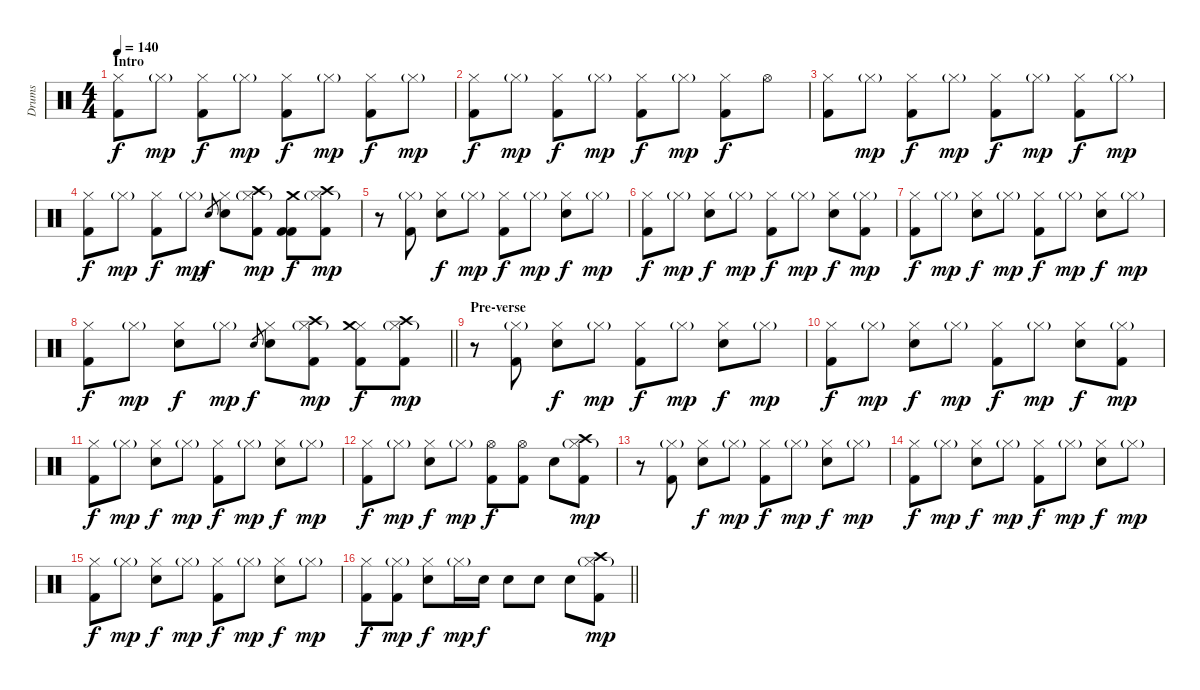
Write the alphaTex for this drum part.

\track ("Drums" "Drums") {instrument percussion}
\staff {score}
\articulation defaults
\ts (4 4)
\section ("" "Intro")
\tempo 140
\clef neutral
\ks c
("Kick (hit) 2" "Hi-Hat (closed)").8{dy f} "Hi-Hat (closed)"{g}.8{dy mp} ("Kick (hit) 2" "Hi-Hat (closed)").8{dy f} "Hi-Hat (closed)"{g}.8{dy mp} ("Kick (hit) 2" "Hi-Hat (closed)").8{dy f} "Hi-Hat (closed)"{g}.8{dy mp} ("Kick (hit) 2" "Hi-Hat (closed)").8{dy f} "Hi-Hat (closed)"{g}.8{dy mp} |
("Kick (hit) 2" "Hi-Hat (closed)").8{dy f} "Hi-Hat (closed)"{g}.8{dy mp} ("Kick (hit) 2" "Hi-Hat (closed)").8{dy f} "Hi-Hat (closed)"{g}.8{dy mp} ("Kick (hit) 2" "Hi-Hat (closed)").8{dy f} "Hi-Hat (closed)"{g}.8{dy mp} ("Kick (hit) 2" "Hi-Hat (closed)").8{dy f} "Hi-Hat (open)".8 |
("Kick (hit) 2" "Hi-Hat (closed)").8 "Hi-Hat (closed)"{g}.8{dy mp} ("Kick (hit) 2" "Hi-Hat (closed)").8{dy f} "Hi-Hat (closed)"{g}.8{dy mp} ("Kick (hit) 2" "Hi-Hat (closed)").8{dy f} "Hi-Hat (closed)"{g}.8{dy mp} ("Kick (hit) 2" "Hi-Hat (closed)").8{dy f} "Hi-Hat (closed)"{g}.8{dy mp} |
("Kick (hit) 2" "Hi-Hat (closed)").8{dy f} "Hi-Hat (closed)"{g}.8{dy mp} ("Kick (hit) 2" "Hi-Hat (closed)").8{dy f} "Hi-Hat (closed)"{g}.8{dy mp} "Electric Snare (hit)".8{gr dy f} ("Electric Snare (hit)" "Hi-Hat (closed)").8 ("Hi-Hat (closed)"{g} "Kick (hit) 2" "Crash high (hit)").8{dy mp} ("Kick (hit) 2" "Kick (hit) 2" "Crash medium (hit)").8{dy f} ("Hi-Hat (closed)"{g} "Kick (hit) 2" "Crash high (hit)").8{dy mp} |
r.8 ("Hi-Hat (closed)"{g} "Kick (hit) 2").8 ("Hi-Hat (closed)" "Electric Snare (hit)").8{dy f} "Hi-Hat (closed)"{g}.8{dy mp} ("Hi-Hat (closed)" "Kick (hit) 2").8{dy f} "Hi-Hat (closed)"{g}.8{dy mp} ("Hi-Hat (closed)" "Electric Snare (hit)").8{dy f} "Hi-Hat (closed)"{g}.8{dy mp} |
("Hi-Hat (closed)" "Kick (hit) 2").8{dy f} "Hi-Hat (closed)"{g}.8{dy mp} ("Hi-Hat (closed)" "Electric Snare (hit)").8{dy f} "Hi-Hat (closed)"{g}.8{dy mp} ("Hi-Hat (closed)" "Kick (hit) 2").8{dy f} "Hi-Hat (closed)"{g}.8{dy mp} ("Hi-Hat (closed)" "Electric Snare (hit)").8{dy f} ("Hi-Hat (closed)"{g} "Kick (hit) 2").8{dy mp} |
("Hi-Hat (closed)" "Kick (hit) 2").8{dy f} "Hi-Hat (closed)"{g}.8{dy mp} ("Hi-Hat (closed)" "Electric Snare (hit)").8{dy f} "Hi-Hat (closed)"{g}.8{dy mp} ("Hi-Hat (closed)" "Kick (hit) 2").8{dy f} "Hi-Hat (closed)"{g}.8{dy mp} ("Hi-Hat (closed)" "Electric Snare (hit)").8{dy f} "Hi-Hat (closed)"{g}.8{dy mp} |
\barLineRight lightlight
("Hi-Hat (closed)" "Kick (hit) 2").8{dy f} "Hi-Hat (closed)"{g}.8{dy mp} ("Hi-Hat (closed)" "Electric Snare (hit)").8{dy f} "Hi-Hat (closed)"{g}.8{dy mp} "Electric Snare (hit)".8{gr dy f} ("Hi-Hat (closed)" "Electric Snare (hit)").8 ("Hi-Hat (closed)"{g} "Kick (hit) 2" "Crash high (hit)").8{dy mp} ("Hi-Hat (closed)" "Kick (hit) 2" "Crash medium (hit)").8{dy f} ("Hi-Hat (closed)"{g} "Kick (hit) 2" "Crash high (hit)").8{dy mp} |
\section ("" "Pre-verse")
r.8 ("Hi-Hat (closed)"{g} "Kick (hit) 2").8 ("Hi-Hat (closed)" "Electric Snare (hit)").8{dy f} "Hi-Hat (closed)"{g}.8{dy mp} ("Hi-Hat (closed)" "Kick (hit) 2").8{dy f} "Hi-Hat (closed)"{g}.8{dy mp} ("Hi-Hat (closed)" "Electric Snare (hit)").8{dy f} "Hi-Hat (closed)"{g}.8{dy mp} |
("Hi-Hat (closed)" "Kick (hit) 2").8{dy f} "Hi-Hat (closed)"{g}.8{dy mp} ("Hi-Hat (closed)" "Electric Snare (hit)").8{dy f} "Hi-Hat (closed)"{g}.8{dy mp} ("Hi-Hat (closed)" "Kick (hit) 2").8{dy f} "Hi-Hat (closed)"{g}.8{dy mp} ("Hi-Hat (closed)" "Electric Snare (hit)").8{dy f} ("Hi-Hat (closed)"{g} "Kick (hit) 2").8{dy mp} |
("Hi-Hat (closed)" "Kick (hit) 2").8{dy f} "Hi-Hat (closed)"{g}.8{dy mp} ("Hi-Hat (closed)" "Electric Snare (hit)").8{dy f} "Hi-Hat (closed)"{g}.8{dy mp} ("Hi-Hat (closed)" "Kick (hit) 2").8{dy f} "Hi-Hat (closed)"{g}.8{dy mp} ("Hi-Hat (closed)" "Electric Snare (hit)").8{dy f} "Hi-Hat (closed)"{g}.8{dy mp} |
("Hi-Hat (closed)" "Kick (hit) 2").8{dy f} "Hi-Hat (closed)"{g}.8{dy mp} ("Hi-Hat (closed)" "Electric Snare (hit)").8{dy f} "Hi-Hat (closed)"{g}.8{dy mp} ("Hi-Hat (open)" "Kick (hit) 2").8{dy f} ("Hi-Hat (open)" "Kick (hit) 2").8 "Electric Snare (hit)".8 ("Hi-Hat (closed)"{g} "Kick (hit) 2" "Crash high (hit)").8{dy mp} |
r.8 ("Hi-Hat (closed)"{g} "Kick (hit) 2").8 ("Hi-Hat (closed)" "Electric Snare (hit)").8{dy f} "Hi-Hat (closed)"{g}.8{dy mp} ("Hi-Hat (closed)" "Kick (hit) 2").8{dy f} "Hi-Hat (closed)"{g}.8{dy mp} ("Hi-Hat (closed)" "Electric Snare (hit)").8{dy f} "Hi-Hat (closed)"{g}.8{dy mp} |
("Hi-Hat (closed)" "Kick (hit) 2").8{dy f} "Hi-Hat (closed)"{g}.8{dy mp} ("Hi-Hat (closed)" "Electric Snare (hit)").8{dy f} "Hi-Hat (closed)"{g}.8{dy mp} ("Hi-Hat (closed)" "Kick (hit) 2").8{dy f} "Hi-Hat (closed)"{g}.8{dy mp} ("Hi-Hat (closed)" "Electric Snare (hit)").8{dy f} "Hi-Hat (closed)"{g}.8{dy mp} |
("Hi-Hat (closed)" "Kick (hit) 2").8{dy f} "Hi-Hat (closed)"{g}.8{dy mp} ("Hi-Hat (closed)" "Electric Snare (hit)").8{dy f} "Hi-Hat (closed)"{g}.8{dy mp} ("Hi-Hat (closed)" "Kick (hit) 2").8{dy f} "Hi-Hat (closed)"{g}.8{dy mp} ("Hi-Hat (closed)" "Electric Snare (hit)").8{dy f} "Hi-Hat (closed)"{g}.8{dy mp} |
\barLineRight lightlight
("Hi-Hat (closed)" "Kick (hit) 2").8{dy f} ("Hi-Hat (closed)"{g} "Kick (hit) 2").8{dy mp} ("Hi-Hat (closed)" "Electric Snare (hit)").8{dy f} "Hi-Hat (closed)"{g}.16{dy mp} "Electric Snare (hit)".16{dy f} "Electric Snare (hit)".8 "Electric Snare (hit)".8 "Electric Snare (hit)".8 ("Hi-Hat (closed)"{g} "Kick (hit) 2" "Crash high (hit)").8{dy mp}
